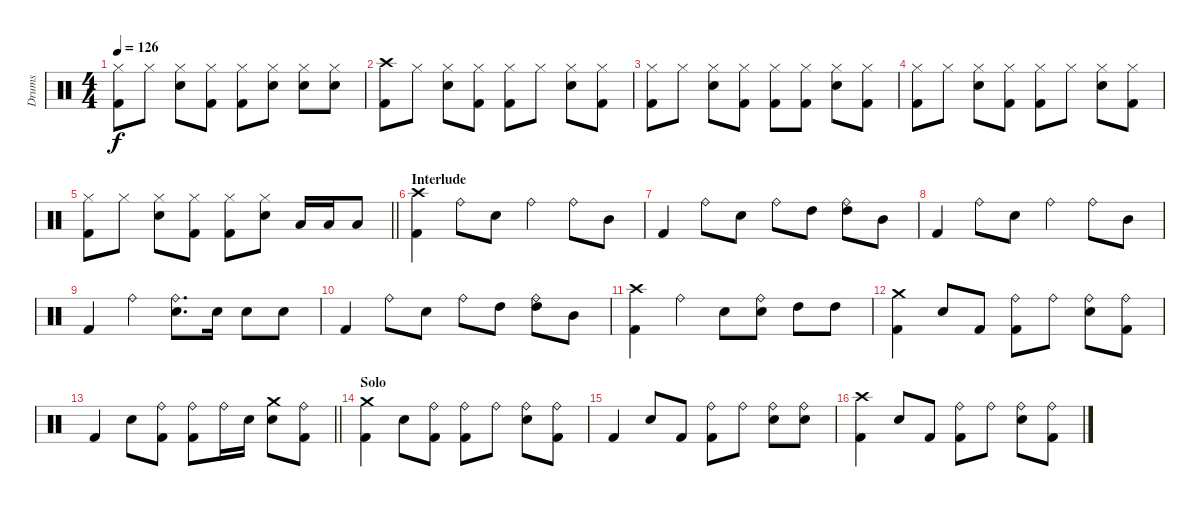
\track ("Drums" "Drums") {instrument percussion}
\staff {score}
\articulation defaults
\ts (4 4)
\tempo 126
\clef neutral
\ks c
("Hi-Hat (closed)" "Kick (hit) 2").8{dy f} "Hi-Hat (closed)".8 ("Hi-Hat (closed)" "Snare (hit) 2").8 ("Hi-Hat (closed)" "Kick (hit) 2").8 ("Hi-Hat (closed)" "Kick (hit) 2").8 ("Hi-Hat (closed)" "Snare (hit) 2").8 ("Hi-Hat (closed)" "Snare (hit) 2").8 ("Hi-Hat (closed)" "Snare (hit) 2").8 |
("Crash high (hit)" "Kick (hit) 2").8 "Hi-Hat (closed)".8 ("Hi-Hat (closed)" "Snare (hit) 2").8 ("Hi-Hat (closed)" "Kick (hit) 2").8 ("Hi-Hat (closed)" "Kick (hit) 2").8 "Hi-Hat (closed)".8 ("Hi-Hat (closed)" "Snare (hit) 2").8 ("Hi-Hat (closed)" "Kick (hit) 2").8 |
("Hi-Hat (closed)" "Kick (hit) 2").8 "Hi-Hat (closed)".8 ("Hi-Hat (closed)" "Snare (hit) 2").8 ("Hi-Hat (closed)" "Kick (hit) 2").8 ("Hi-Hat (closed)" "Kick (hit) 2").8 ("Hi-Hat (closed)" "Kick (hit) 2").8 ("Hi-Hat (closed)" "Snare (hit) 2").8 ("Hi-Hat (closed)" "Kick (hit) 2").8 |
("Hi-Hat (closed)" "Kick (hit) 2").8 "Hi-Hat (closed)".8 ("Hi-Hat (closed)" "Snare (hit) 2").8 ("Hi-Hat (closed)" "Kick (hit) 2").8 ("Hi-Hat (closed)" "Kick (hit) 2").8 "Hi-Hat (closed)".8 ("Hi-Hat (closed)" "Snare (hit) 2").8 ("Hi-Hat (closed)" "Kick (hit) 2").8 |
\barLineRight lightlight
("Hi-Hat (closed)" "Kick (hit) 2").8 "Hi-Hat (closed)".8 ("Hi-Hat (closed)" "Snare (hit) 2").8 ("Hi-Hat (closed)" "Kick (hit) 2").8 ("Hi-Hat (closed)" "Kick (hit) 2").8 ("Hi-Hat (closed)" "Snare (hit) 2").8 "Low Tom (hit)".16 "Low Tom (hit)".16 "Low Tom (hit)".8 |
\section ("" "Interlude")
("Crash high (hit)" "Kick (hit) 2").4 "Ride (bell)".8 "Snare (hit) 2".8 "Ride (bell)".4 "Ride (bell)".8 "Mid Tom (hit)".8 |
"Kick (hit) 2".4 "Ride (bell)".8 "Snare (hit) 2".8 "Ride (bell)".8 "High Tom (hit)".8 ("Ride (bell)" "High Tom (hit)").8 "Mid Tom (hit)".8 |
"Kick (hit) 2".4 "Ride (bell)".8 "Snare (hit) 2".8 "Ride (bell)".4 "Ride (bell)".8 "Mid Tom (hit)".8 |
"Kick (hit) 2".4 "Ride (bell)".4 ("Ride (bell)" "Snare (hit) 2").8{d} "Snare (hit) 2".16 "Snare (hit) 2".8 "Snare (hit) 2".8 |
"Kick (hit) 2".4 "Ride (bell)".8 "Snare (hit) 2".8 "Ride (bell)".8 "High Tom (hit)".8 ("Ride (bell)" "High Tom (hit)").8 "Mid Tom (hit)".8 |
("Crash high (hit)" "Kick (hit) 2").4 "Ride (bell)".4 "Snare (hit) 2".8 ("Ride (bell)" "Snare (hit) 2").8 "High Tom (hit)".8 "High Tom (hit)".8 |
("Crash medium (hit)" "Kick (hit) 2").4 "Snare (hit) 2".8 "Kick (hit) 2".8 ("Ride (bell)" "Kick (hit) 2").8 "Ride (bell)".8 ("Ride (bell)" "Snare (hit) 2").8 ("Ride (bell)" "Kick (hit) 2").8 |
\barLineRight lightlight "Kick (hit) 2".4 "Snare (hit) 2".8
("Ride (bell)" "Kick (hit) 2").8 ("Ride (bell)" "Kick (hit) 2").8 "Ride (bell)".16 "Snare (hit) 2".16 ("Crash medium (hit)" "Snare (hit) 2").8 ("Ride (bell)" "Kick (hit) 2").8 |
\section ("" "Solo")
("Crash medium (hit)" "Kick (hit) 2").4 "Snare (hit) 2".8 ("Ride (bell)" "Kick (hit) 2").8 ("Ride (bell)" "Kick (hit) 2").8 "Ride (bell)".8 ("Ride (bell)" "Snare (hit) 2").8 ("Ride (bell)" "Kick (hit) 2").8 |
"Kick (hit) 2".4 "Snare (hit) 2".8 "Kick (hit) 2".8 ("Ride (bell)" "Kick (hit) 2").8 "Ride (bell)".8 ("Ride (bell)" "Snare (hit) 2").8 ("Ride (bell)" "Snare (hit) 2").8 |
("Crash high (hit)" "Kick (hit) 2").4 "Snare (hit) 2".8 "Kick (hit) 2".8 ("Ride (bell)" "Kick (hit) 2").8 "Ride (bell)".8 ("Ride (bell)" "Snare (hit) 2").8 ("Ride (bell)" "Kick (hit) 2").8
